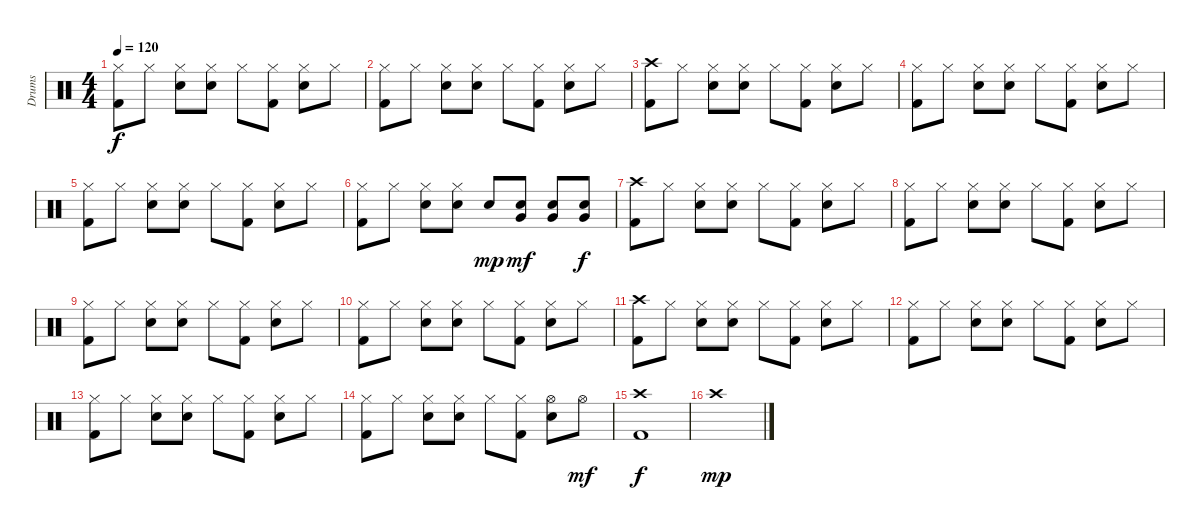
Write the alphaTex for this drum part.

\track ("Drums" "Drums") {instrument percussion}
\staff {score}
\articulation defaults
\ts (4 4)
\tempo 120
\clef neutral
\ks c
("Hi-Hat (closed)" "Kick (hit) 2").8{dy f} "Hi-Hat (closed)".8 ("Hi-Hat (closed)" "Snare (hit) 2").8 ("Hi-Hat (closed)" "Snare (hit) 2").8 "Hi-Hat (closed)".8 ("Hi-Hat (closed)" "Kick (hit) 2").8 ("Hi-Hat (closed)" "Snare (hit) 2").8 "Hi-Hat (closed)".8 |
("Hi-Hat (closed)" "Kick (hit) 2").8 "Hi-Hat (closed)".8 ("Hi-Hat (closed)" "Snare (hit) 2").8 ("Hi-Hat (closed)" "Snare (hit) 2").8 "Hi-Hat (closed)".8 ("Hi-Hat (closed)" "Kick (hit) 2").8 ("Hi-Hat (closed)" "Snare (hit) 2").8 "Hi-Hat (closed)".8 |
("Crash high (hit)" "Kick (hit) 2").8 "Hi-Hat (closed)".8 ("Hi-Hat (closed)" "Snare (hit) 2").8 ("Hi-Hat (closed)" "Snare (hit) 2").8 "Hi-Hat (closed)".8 ("Hi-Hat (closed)" "Kick (hit) 2").8 ("Hi-Hat (closed)" "Snare (hit) 2").8 "Hi-Hat (closed)".8 |
("Hi-Hat (closed)" "Kick (hit) 2").8 "Hi-Hat (closed)".8 ("Hi-Hat (closed)" "Snare (hit) 2").8 ("Hi-Hat (closed)" "Snare (hit) 2").8 "Hi-Hat (closed)".8 ("Hi-Hat (closed)" "Kick (hit) 2").8 ("Hi-Hat (closed)" "Snare (hit) 2").8 "Hi-Hat (closed)".8 |
("Hi-Hat (closed)" "Kick (hit) 2").8 "Hi-Hat (closed)".8 ("Hi-Hat (closed)" "Snare (hit) 2").8 ("Hi-Hat (closed)" "Snare (hit) 2").8 "Hi-Hat (closed)".8 ("Hi-Hat (closed)" "Kick (hit) 2").8 ("Hi-Hat (closed)" "Snare (hit) 2").8 "Hi-Hat (closed)".8 |
("Hi-Hat (closed)" "Kick (hit) 2").8 "Hi-Hat (closed)".8 ("Hi-Hat (closed)" "Snare (hit) 2").8 ("Hi-Hat (closed)" "Snare (hit) 2").8 "Snare (hit) 2".8{dy mp} ("Very Low Tom (hit)" "Snare (hit) 2").8{dy mf} ("Very Low Tom (hit)" "Snare (hit) 2").8 ("Very Low Tom (hit)" "Snare (hit) 2").8{dy f} |
("Crash high (hit)" "Kick (hit) 2").8 "Hi-Hat (closed)".8 ("Hi-Hat (closed)" "Snare (hit) 2").8 ("Hi-Hat (closed)" "Snare (hit) 2").8 "Hi-Hat (closed)".8 ("Hi-Hat (closed)" "Kick (hit) 2").8 ("Hi-Hat (closed)" "Snare (hit) 2").8 "Hi-Hat (closed)".8 |
("Hi-Hat (closed)" "Kick (hit) 2").8 "Hi-Hat (closed)".8 ("Hi-Hat (closed)" "Snare (hit) 2").8 ("Hi-Hat (closed)" "Snare (hit) 2").8 "Hi-Hat (closed)".8 ("Hi-Hat (closed)" "Kick (hit) 2").8 ("Hi-Hat (closed)" "Snare (hit) 2").8 "Hi-Hat (closed)".8 |
("Hi-Hat (closed)" "Kick (hit) 2").8 "Hi-Hat (closed)".8 ("Hi-Hat (closed)" "Snare (hit) 2").8 ("Hi-Hat (closed)" "Snare (hit) 2").8 "Hi-Hat (closed)".8 ("Hi-Hat (closed)" "Kick (hit) 2").8 ("Hi-Hat (closed)" "Snare (hit) 2").8 "Hi-Hat (closed)".8 |
("Hi-Hat (closed)" "Kick (hit) 2").8 "Hi-Hat (closed)".8 ("Hi-Hat (closed)" "Snare (hit) 2").8 ("Hi-Hat (closed)" "Snare (hit) 2").8 "Hi-Hat (closed)".8 ("Hi-Hat (closed)" "Kick (hit) 2").8 ("Hi-Hat (closed)" "Snare (hit) 2").8 "Hi-Hat (closed)".8 |
("Crash high (hit)" "Kick (hit) 2").8 "Hi-Hat (closed)".8 ("Hi-Hat (closed)" "Snare (hit) 2").8 ("Hi-Hat (closed)" "Snare (hit) 2").8 "Hi-Hat (closed)".8 ("Hi-Hat (closed)" "Kick (hit) 2").8 ("Hi-Hat (closed)" "Snare (hit) 2").8 "Hi-Hat (closed)".8 |
("Hi-Hat (closed)" "Kick (hit) 2").8 "Hi-Hat (closed)".8 ("Hi-Hat (closed)" "Snare (hit) 2").8 ("Hi-Hat (closed)" "Snare (hit) 2").8 "Hi-Hat (closed)".8 ("Hi-Hat (closed)" "Kick (hit) 2").8 ("Hi-Hat (closed)" "Snare (hit) 2").8 "Hi-Hat (closed)".8 |
("Hi-Hat (closed)" "Kick (hit) 2").8 "Hi-Hat (closed)".8 ("Hi-Hat (closed)" "Snare (hit) 2").8 ("Hi-Hat (closed)" "Snare (hit) 2").8 "Hi-Hat (closed)".8 ("Hi-Hat (closed)" "Kick (hit) 2").8 ("Hi-Hat (closed)" "Snare (hit) 2").8 "Hi-Hat (closed)".8 |
("Hi-Hat (closed)" "Kick (hit) 2").8 "Hi-Hat (closed)".8 ("Hi-Hat (closed)" "Snare (hit) 2").8 ("Hi-Hat (closed)" "Snare (hit) 2").8 "Hi-Hat (closed)".8 ("Hi-Hat (closed)" "Kick (hit) 2").8 ("Hi-Hat (open)" "Snare (hit) 2").8 "Hi-Hat (open)".8{dy mf} |
("Crash high (hit)" "Kick (hit) 2").1{dy f} |
"Crash high (hit)".1{dy mp}
